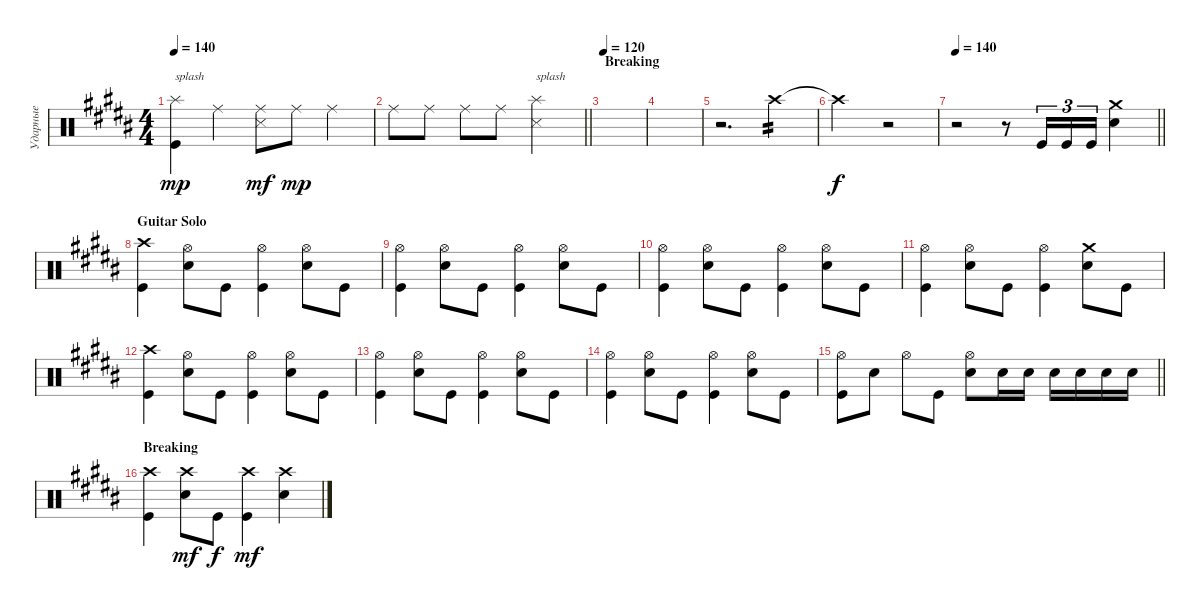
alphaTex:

\track ("Ударные" "Ударные") {instrument percussion}
\staff {score}
\articulation defaults
\ts (4 4)
\tempo 140
\clef neutral
\ks g#minor
("Splash (hit)" "Kick (hit)").4{txt "splash" dy mp} "Ride (middle)".4 ("Ride (middle)" "Snare (side stick) 3").8{dy mf} "Ride (middle)".8{dy mp} "Ride (middle)".4 |
\barLineRight lightlight "Ride (middle)".8 "Ride (middle)".8 "Ride (middle)".8 "Ride (middle)".8
("Splash (hit)" "Snare (side stick) 3").2{txt "splash"} |
\section ("" "Breaking")
\tempo 120
|
|
r.2{d volume 0} "Crash high (hit)".4{tp 2 volume 6} |
"Crash high (hit)"{t}.2{dy f} r.2 |
\tempo 140
\barLineRight lightlight
r.2{volume 14} r.8 "Kick (hit)".16{tu (3 2)} "Kick (hit)".16{tu (3 2)} "Kick (hit)".16{tu (3 2)} ("Snare (hit) 2" "Crash medium (hit)").4 |
\section ("" "Guitar Solo")
("Kick (hit)" "Crash high (hit)").4 ("Snare (hit) 2" "Hi-Hat (open)").8 "Kick (hit)".8 ("Kick (hit)" "Hi-Hat (open)").4 ("Snare (hit) 2" "Hi-Hat (open)").8 "Kick (hit)".8 |
("Kick (hit)" "Hi-Hat (open)").4 ("Snare (hit) 2" "Hi-Hat (open)").8 "Kick (hit)".8 ("Kick (hit)" "Hi-Hat (open)").4 ("Snare (hit) 2" "Hi-Hat (open)").8 "Kick (hit)".8 |
("Kick (hit)" "Hi-Hat (open)").4 ("Snare (hit) 2" "Hi-Hat (open)").8 "Kick (hit)".8 ("Kick (hit)" "Hi-Hat (open)").4 ("Snare (hit) 2" "Hi-Hat (open)").8 "Kick (hit)".8 |
("Kick (hit)" "Hi-Hat (open)").4 ("Snare (hit) 2" "Hi-Hat (open)").8 "Kick (hit)".8 ("Kick (hit)" "Hi-Hat (open)").4 ("Snare (hit) 2" "Crash medium (hit)").8 "Kick (hit)".8 |
("Kick (hit)" "Crash high (hit)").4 ("Snare (hit) 2" "Hi-Hat (open)").8 "Kick (hit)".8 ("Kick (hit)" "Hi-Hat (open)").4 ("Snare (hit) 2" "Hi-Hat (open)").8 "Kick (hit)".8 |
("Kick (hit)" "Hi-Hat (open)").4 ("Snare (hit) 2" "Hi-Hat (open)").8 "Kick (hit)".8 ("Kick (hit)" "Hi-Hat (open)").4 ("Snare (hit) 2" "Hi-Hat (open)").8 "Kick (hit)".8 |
("Kick (hit)" "Hi-Hat (open)").4 ("Snare (hit) 2" "Hi-Hat (open)").8 "Kick (hit)".8 ("Kick (hit)" "Hi-Hat (open)").4 ("Snare (hit) 2" "Hi-Hat (open)").8 "Kick (hit)".8 |
\barLineRight lightlight
("Kick (hit)" "Hi-Hat (open)").8 "Snare (hit) 2".8 "Hi-Hat (open)".8 "Kick (hit)".8 ("Snare (hit) 2" "Hi-Hat (open)").8 "Snare (hit) 2".16 "Snare (hit) 2".16 "Snare (hit) 2".16 "Snare (hit) 2".16 "Snare (hit) 2".16 "Snare (hit) 2".16 |
\section ("" "Breaking")
("Kick (hit)" "Crash high (hit)").4 ("Snare (hit) 2" "Crash high (hit)").8{dy mf} "Kick (hit)".8{dy f} ("Kick (hit)" "Crash high (hit)").4{dy mf} ("Snare (hit) 2" "Crash high (hit)").4
